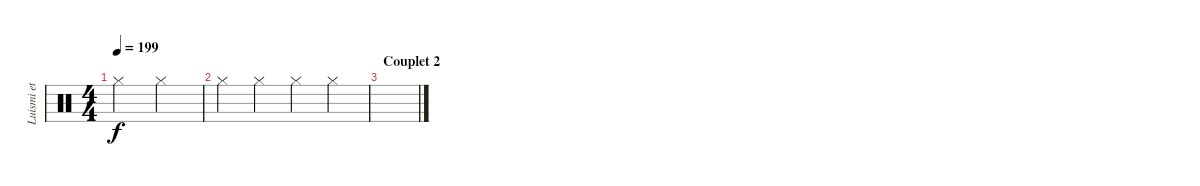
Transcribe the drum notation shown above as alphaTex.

\track ("Luismi et ses castagnettes" "Luismi et ") {instrument percussion}
\staff {score}
\articulation defaults
\ts (4 4)
\tempo 199
\clef neutral
\ks c "Hi-Hat (closed)".2{dy f} "Hi-Hat (closed)".2
|
"Hi-Hat (closed)".4 "Hi-Hat (closed)".4 "Hi-Hat (closed)".4 "Hi-Hat (closed)".4 |
\section ("" "Couplet 2")
